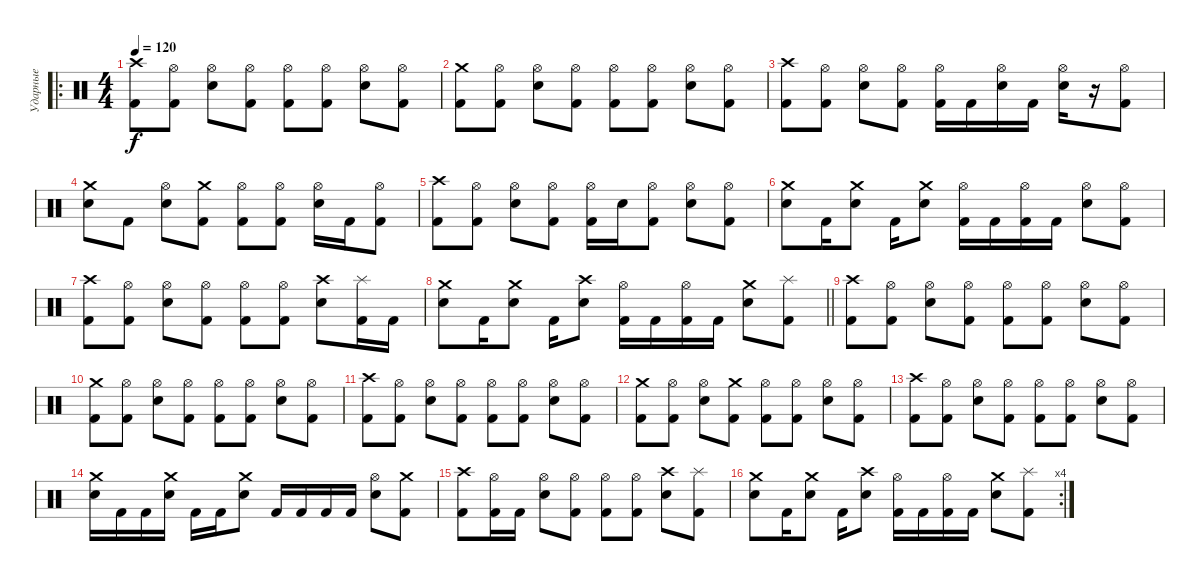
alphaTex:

\track ("Ударные" "Ударные") {instrument percussion}
\staff {score}
\articulation defaults
\ro
\ts (4 4)
\tempo 120
\clef neutral
\ks c
("Crash high (hit)" "Kick (hit) 2").8{dy f} ("Hi-Hat (open)" "Kick (hit) 2").8 ("Hi-Hat (open)" "Electric Snare (hit)").8 ("Hi-Hat (open)" "Kick (hit) 2").8 ("Hi-Hat (open)" "Kick (hit) 2").8 ("Hi-Hat (open)" "Kick (hit) 2").8 ("Hi-Hat (open)" "Electric Snare (hit)").8 ("Hi-Hat (open)" "Kick (hit) 2").8 |
("Crash medium (hit)" "Kick (hit) 2").8 ("Hi-Hat (open)" "Kick (hit) 2").8 ("Hi-Hat (open)" "Electric Snare (hit)").8 ("Hi-Hat (open)" "Kick (hit) 2").8 ("Hi-Hat (open)" "Kick (hit) 2").8 ("Hi-Hat (open)" "Kick (hit) 2").8 ("Hi-Hat (open)" "Electric Snare (hit)").8 ("Hi-Hat (open)" "Kick (hit) 2").8 |
("Crash high (hit)" "Kick (hit) 2").8 ("Hi-Hat (open)" "Kick (hit) 2").8 ("Hi-Hat (open)" "Electric Snare (hit)").8 ("Hi-Hat (open)" "Kick (hit) 2").8 ("Hi-Hat (open)" "Kick (hit) 2").16 "Kick (hit) 2".16 ("Hi-Hat (open)" "Electric Snare (hit)").16 "Kick (hit) 2".16 ("Hi-Hat (open)" "Electric Snare (hit)").16 r.16 ("Hi-Hat (open)" "Kick (hit) 2").8 |
("Crash medium (hit)" "Electric Snare (hit)").8 "Kick (hit) 2".8 ("Hi-Hat (open)" "Electric Snare (hit)").8 ("Crash medium (hit)" "Kick (hit) 2").8 ("Hi-Hat (open)" "Kick (hit) 2").8 ("Hi-Hat (open)" "Kick (hit) 2").8 ("Hi-Hat (open)" "Electric Snare (hit)").16 "Kick (hit) 2".16 ("Hi-Hat (open)" "Kick (hit) 2").8 |
("Crash high (hit)" "Kick (hit) 2").8 ("Hi-Hat (open)" "Kick (hit) 2").8 ("Hi-Hat (open)" "Electric Snare (hit)").8 ("Hi-Hat (open)" "Kick (hit) 2").8 ("Hi-Hat (open)" "Kick (hit) 2").16 "Electric Snare (hit)".16 ("Hi-Hat (open)" "Kick (hit) 2").8 ("Hi-Hat (open)" "Electric Snare (hit)").8 ("Hi-Hat (open)" "Kick (hit) 2").8 |
("Crash medium (hit)" "Electric Snare (hit)").8 "Kick (hit) 2".16 ("Crash medium (hit)" "Electric Snare (hit)").8 "Kick (hit) 2".16 ("Crash medium (hit)" "Electric Snare (hit)").8 ("Hi-Hat (open)" "Kick (hit) 2").16 "Kick (hit) 2".16 ("Hi-Hat (open)" "Kick (hit) 2").16 "Kick (hit) 2".16 ("Hi-Hat (open)" "Electric Snare (hit)").8 ("Hi-Hat (open)" "Kick (hit) 2").8 |
("Crash high (hit)" "Kick (hit) 2").8 ("Hi-Hat (open)" "Kick (hit) 2").8 ("Hi-Hat (open)" "Electric Snare (hit)").8 ("Hi-Hat (open)" "Kick (hit) 2").8 ("Hi-Hat (open)" "Kick (hit) 2").8 ("Hi-Hat (open)" "Kick (hit) 2").8 ("Crash high (hit)" "Electric Snare (hit)").8 ("Splash (hit)" "Kick (hit) 2").16 "Kick (hit) 2".16 |
\barLineRight lightlight
("Crash medium (hit)" "Electric Snare (hit)").8 "Kick (hit) 2".16 ("Crash medium (hit)" "Electric Snare (hit)").8 "Kick (hit) 2".16 ("Crash high (hit)" "Electric Snare (hit)").8 ("Hi-Hat (open)" "Kick (hit) 2").16 "Kick (hit) 2".16 ("Hi-Hat (open)" "Kick (hit) 2").16 "Kick (hit) 2".16 ("Crash medium (hit)" "Electric Snare (hit)").8 ("Splash (hit)" "Kick (hit) 2").8 |
("Crash high (hit)" "Kick (hit) 2").8 ("Hi-Hat (open)" "Kick (hit) 2").8 ("Hi-Hat (open)" "Electric Snare (hit)").8 ("Hi-Hat (open)" "Kick (hit) 2").8 ("Hi-Hat (open)" "Kick (hit) 2").8 ("Hi-Hat (open)" "Kick (hit) 2").8 ("Hi-Hat (open)" "Electric Snare (hit)").8 ("Hi-Hat (open)" "Kick (hit) 2").8 |
("Crash medium (hit)" "Kick (hit) 2").8 ("Hi-Hat (open)" "Kick (hit) 2").8 ("Hi-Hat (open)" "Electric Snare (hit)").8 ("Hi-Hat (open)" "Kick (hit) 2").8 ("Hi-Hat (open)" "Kick (hit) 2").8 ("Hi-Hat (open)" "Kick (hit) 2").8 ("Hi-Hat (open)" "Electric Snare (hit)").8 ("Hi-Hat (open)" "Kick (hit) 2").8 |
("Crash high (hit)" "Kick (hit) 2").8 ("Hi-Hat (open)" "Kick (hit) 2").8 ("Hi-Hat (open)" "Electric Snare (hit)").8 ("Hi-Hat (open)" "Kick (hit) 2").8 ("Hi-Hat (open)" "Kick (hit) 2").8 ("Hi-Hat (open)" "Kick (hit) 2").8 ("Hi-Hat (open)" "Electric Snare (hit)").8 ("Hi-Hat (open)" "Kick (hit) 2").8 |
("Crash medium (hit)" "Kick (hit) 2").8 ("Hi-Hat (open)" "Kick (hit) 2").8 ("Hi-Hat (open)" "Electric Snare (hit)").8 ("Crash medium (hit)" "Kick (hit) 2").8 ("Hi-Hat (open)" "Kick (hit) 2").8 ("Hi-Hat (open)" "Kick (hit) 2").8 ("Hi-Hat (open)" "Electric Snare (hit)").8 ("Hi-Hat (open)" "Kick (hit) 2").8 |
("Crash high (hit)" "Kick (hit) 2").8 ("Hi-Hat (open)" "Kick (hit) 2").8 ("Hi-Hat (open)" "Electric Snare (hit)").8 ("Hi-Hat (open)" "Kick (hit) 2").8 ("Hi-Hat (open)" "Kick (hit) 2").8 ("Hi-Hat (open)" "Kick (hit) 2").8 ("Hi-Hat (open)" "Electric Snare (hit)").8 ("Hi-Hat (open)" "Kick (hit) 2").8 |
("Crash medium (hit)" "Electric Snare (hit)").16 "Kick (hit) 2".16 "Kick (hit) 2".16 ("Crash medium (hit)" "Electric Snare (hit)").16 "Kick (hit) 2".16 "Kick (hit) 2".16 ("Crash medium (hit)" "Electric Snare (hit)").8 "Kick (hit) 2".16 "Kick (hit) 2".16 "Kick (hit) 2".16 "Kick (hit) 2".16 ("Hi-Hat (open)" "Electric Snare (hit)").8 ("Crash medium (hit)" "Kick (hit) 2").8 |
("Crash high (hit)" "Kick (hit) 2").8 ("Hi-Hat (open)" "Kick (hit) 2").16 "Kick (hit) 2".16 ("Hi-Hat (open)" "Electric Snare (hit)").8 ("Hi-Hat (open)" "Kick (hit) 2").8 ("Hi-Hat (open)" "Kick (hit) 2").8 ("Hi-Hat (open)" "Kick (hit) 2").8 ("Crash high (hit)" "Electric Snare (hit)").8 ("Splash (hit)" "Kick (hit) 2").8 |
\rc 4
("Crash medium (hit)" "Electric Snare (hit)").8 "Kick (hit) 2".16 ("Crash medium (hit)" "Electric Snare (hit)").8 "Kick (hit) 2".16 ("Crash high (hit)" "Electric Snare (hit)").8 ("Hi-Hat (open)" "Kick (hit) 2").16 "Kick (hit) 2".16 ("Hi-Hat (open)" "Kick (hit) 2").16 "Kick (hit) 2".16 ("Crash medium (hit)" "Electric Snare (hit)").8 ("Splash (hit)" "Kick (hit) 2").8
